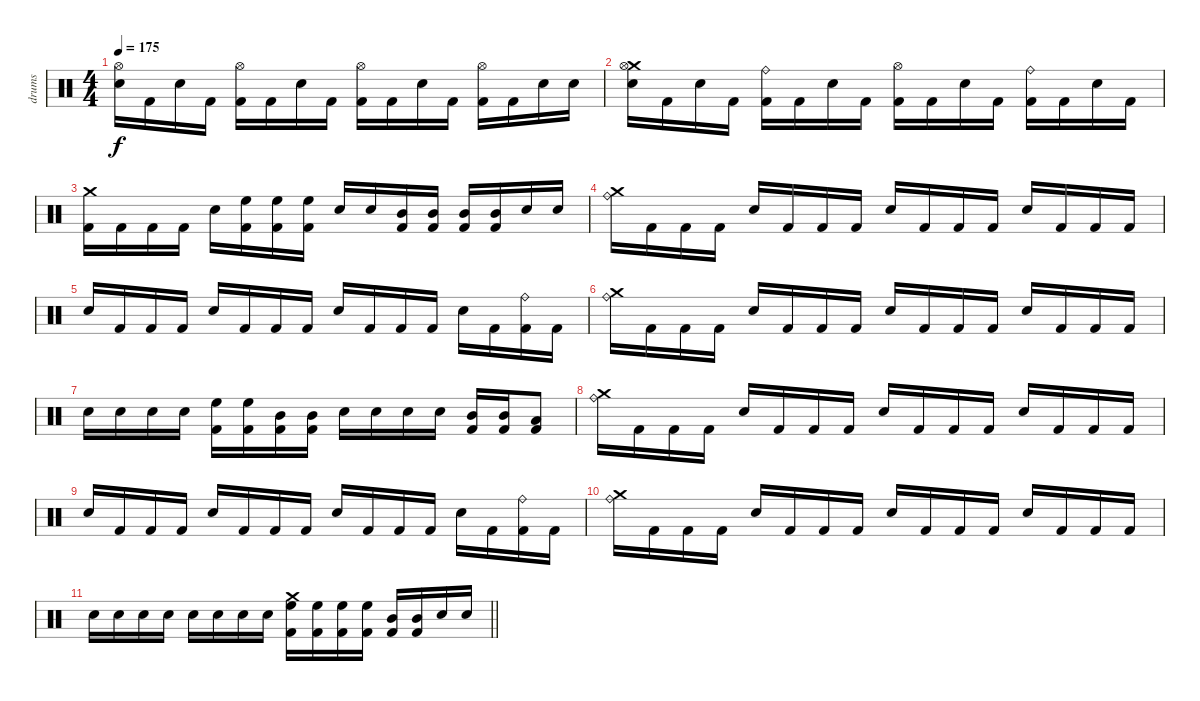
\track ("drums" "drums") {instrument percussion}
\staff {score}
\articulation defaults
\ts (4 4)
\tempo 175
\clef neutral
\ks c
("Hi-Hat (open)" "Snare (hit) 2").16{dy f} "Kick (hit) 2".16 "Snare (hit) 2".16 "Kick (hit) 2".16 ("Hi-Hat (open)" "Kick (hit) 2").16 "Kick (hit) 2".16 "Snare (hit) 2".16 "Kick (hit) 2".16 ("Hi-Hat (open)" "Kick (hit) 2").16 "Kick (hit) 2".16 "Snare (hit) 2".16 "Kick (hit) 2".16 ("Hi-Hat (open)" "Kick (hit) 2").16 "Kick (hit) 2".16 "Snare (hit) 2".16 "Snare (hit) 2".16 |
("Crash medium (hit)" "Hi-Hat (open)" "Snare (hit) 2").16 "Kick (hit) 2".16 "Snare (hit) 2".16 "Kick (hit) 2".16 ("Ride (bell)" "Kick (hit) 2").16 "Kick (hit) 2".16 "Snare (hit) 2".16 "Kick (hit) 2".16 ("Hi-Hat (open)" "Kick (hit) 2").16 "Kick (hit) 2".16 "Snare (hit) 2".16 "Kick (hit) 2".16 ("Ride (bell)" "Kick (hit) 2").16 "Kick (hit) 2".16 "Snare (hit) 2".16 "Kick (hit) 2".16 |
("Crash medium (hit)" "Kick (hit) 2").16 "Kick (hit) 2".16 "Kick (hit) 2".16 "Kick (hit) 2".16 "Snare (hit) 2".16 ("High Floor Tom (hit)" "Kick (hit) 2").16 ("High Floor Tom (hit)" "Kick (hit) 2").16 ("High Floor Tom (hit)" "Kick (hit) 2").16 "Snare (hit) 2".16 "Snare (hit) 2".16 ("Mid Tom (hit)" "Kick (hit) 2").16 ("Mid Tom (hit)" "Kick (hit) 2").16 ("Mid Tom (hit)" "Kick (hit) 2").16 ("Mid Tom (hit)" "Kick (hit) 2").16 "Snare (hit) 2".16 "Snare (hit) 2".16 |
("Crash medium (hit)" "Ride (bell)").16 "Kick (hit) 2".16 "Kick (hit) 2".16 "Kick (hit) 2".16 "Snare (hit) 2".16 "Kick (hit) 2".16 "Kick (hit) 2".16 "Kick (hit) 2".16 "Snare (hit) 2".16 "Kick (hit) 2".16 "Kick (hit) 2".16 "Kick (hit) 2".16 "Snare (hit) 2".16 "Kick (hit) 2".16 "Kick (hit) 2".16 "Kick (hit) 2".16 |
"Snare (hit) 2".16 "Kick (hit) 2".16 "Kick (hit) 2".16 "Kick (hit) 2".16 "Snare (hit) 2".16 "Kick (hit) 2".16 "Kick (hit) 2".16 "Kick (hit) 2".16 "Snare (hit) 2".16 "Kick (hit) 2".16 "Kick (hit) 2".16 "Kick (hit) 2".16 "Snare (hit) 2".16 "Kick (hit) 2".16 ("Ride (bell)" "Kick (hit) 2").16 "Kick (hit) 2".16 |
("Crash medium (hit)" "Ride (bell)").16 "Kick (hit) 2".16 "Kick (hit) 2".16 "Kick (hit) 2".16 "Snare (hit) 2".16 "Kick (hit) 2".16 "Kick (hit) 2".16 "Kick (hit) 2".16 "Snare (hit) 2".16 "Kick (hit) 2".16 "Kick (hit) 2".16 "Kick (hit) 2".16 "Snare (hit) 2".16 "Kick (hit) 2".16 "Kick (hit) 2".16 "Kick (hit) 2".16 |
"Snare (hit) 2".16 "Snare (hit) 2".16 "Snare (hit) 2".16 "Snare (hit) 2".16 ("High Floor Tom (hit)" "Kick (hit) 2").16 ("High Floor Tom (hit)" "Kick (hit) 2").16 ("Mid Tom (hit)" "Kick (hit) 2").16 ("Mid Tom (hit)" "Kick (hit) 2").16 "Snare (hit) 2".16 "Snare (hit) 2".16 "Snare (hit) 2".16 "Snare (hit) 2".16 ("Mid Tom (hit)" "Kick (hit) 2").16 ("Mid Tom (hit)" "Kick (hit) 2").16 ("Low Tom (hit)" "Kick (hit) 2").8 |
("Crash medium (hit)" "Ride (bell)").16 "Kick (hit) 2".16 "Kick (hit) 2".16 "Kick (hit) 2".16 "Snare (hit) 2".16 "Kick (hit) 2".16 "Kick (hit) 2".16 "Kick (hit) 2".16 "Snare (hit) 2".16 "Kick (hit) 2".16 "Kick (hit) 2".16 "Kick (hit) 2".16 "Snare (hit) 2".16 "Kick (hit) 2".16 "Kick (hit) 2".16 "Kick (hit) 2".16 |
"Snare (hit) 2".16 "Kick (hit) 2".16 "Kick (hit) 2".16 "Kick (hit) 2".16 "Snare (hit) 2".16 "Kick (hit) 2".16 "Kick (hit) 2".16 "Kick (hit) 2".16 "Snare (hit) 2".16 "Kick (hit) 2".16 "Kick (hit) 2".16 "Kick (hit) 2".16 "Snare (hit) 2".16 "Kick (hit) 2".16 ("Ride (bell)" "Kick (hit) 2").16 "Kick (hit) 2".16 |
("Crash medium (hit)" "Ride (bell)").16 "Kick (hit) 2".16 "Kick (hit) 2".16 "Kick (hit) 2".16 "Snare (hit) 2".16 "Kick (hit) 2".16 "Kick (hit) 2".16 "Kick (hit) 2".16 "Snare (hit) 2".16 "Kick (hit) 2".16 "Kick (hit) 2".16 "Kick (hit) 2".16 "Snare (hit) 2".16 "Kick (hit) 2".16 "Kick (hit) 2".16 "Kick (hit) 2".16 |
\barLineRight lightlight "Snare (hit) 2".16 "Snare (hit) 2".16 "Snare (hit) 2".16 "Snare (hit) 2".16 "Snare (hit) 2".16 "Snare (hit) 2".16 "Snare (hit) 2".16 "Snare (hit) 2".16
("Crash medium (hit)" "High Floor Tom (hit)" "Kick (hit) 2").16 ("High Floor Tom (hit)" "Kick (hit) 2").16 ("High Floor Tom (hit)" "Kick (hit) 2").16 ("High Floor Tom (hit)" "Kick (hit) 2").16 ("Mid Tom (hit)" "Kick (hit) 2").16 ("Mid Tom (hit)" "Kick (hit) 2").16 "Snare (hit) 2".16 "Snare (hit) 2".16
